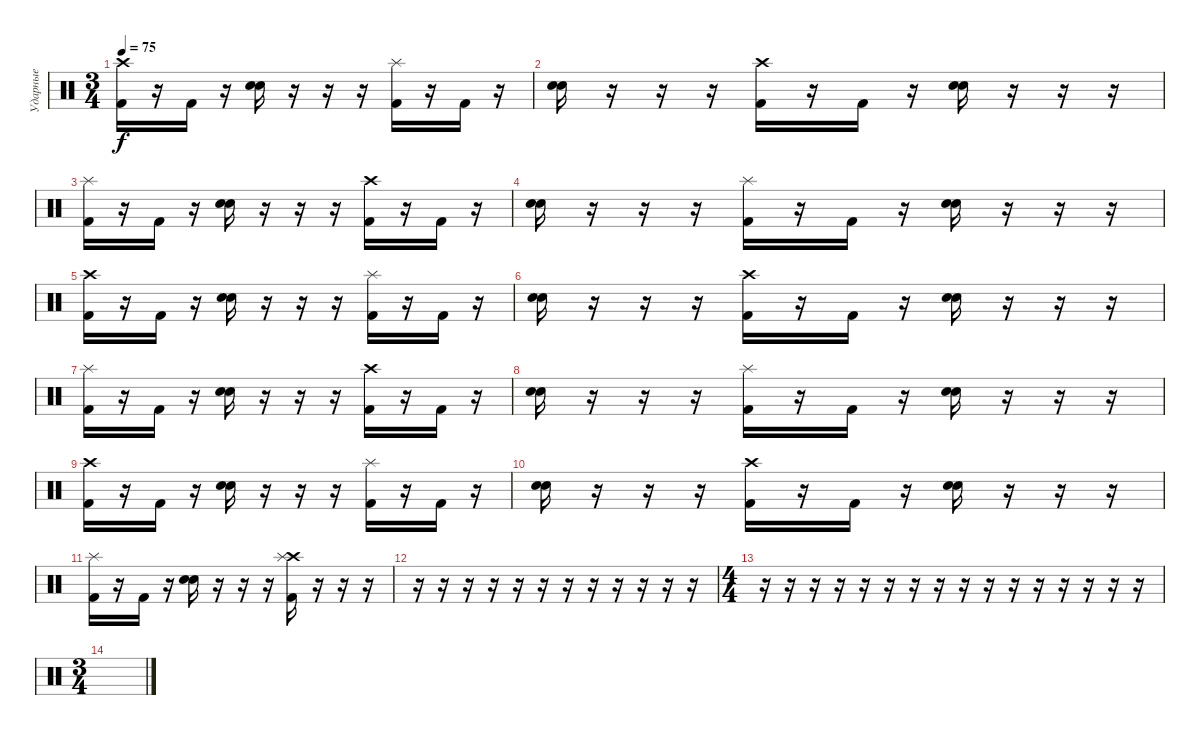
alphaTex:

\track ("Ударные" "Ударные") {instrument percussion}
\staff {score}
\articulation defaults
\ts (3 4)
\tempo 75
\clef neutral
\ks c
("Crash high (hit)" "Kick (hit) 2").16{dy f} r.16 "Kick (hit) 2".16 r.16 ("Electric Snare (hit)" "Snare (hit) 2").16 r.16 r.16 r.16 ("Splash (hit)" "Kick (hit) 2").16 r.16 "Kick (hit) 2".16 r.16 |
("Electric Snare (hit)" "Snare (hit) 2").16 r.16 r.16 r.16 ("Crash high (hit)" "Kick (hit) 2").16 r.16 "Kick (hit) 2".16 r.16 ("Electric Snare (hit)" "Snare (hit) 2").16 r.16 r.16 r.16 |
("Splash (hit)" "Kick (hit) 2").16 r.16 "Kick (hit) 2".16 r.16 ("Electric Snare (hit)" "Snare (hit) 2").16 r.16 r.16 r.16 ("Crash high (hit)" "Kick (hit) 2").16 r.16 "Kick (hit) 2".16 r.16 |
("Electric Snare (hit)" "Snare (hit) 2").16 r.16 r.16 r.16 ("Splash (hit)" "Kick (hit) 2").16 r.16 "Kick (hit) 2".16 r.16 ("Electric Snare (hit)" "Snare (hit) 2").16 r.16 r.16 r.16 |
("Crash high (hit)" "Kick (hit) 2").16 r.16 "Kick (hit) 2".16 r.16 ("Electric Snare (hit)" "Snare (hit) 2").16 r.16 r.16 r.16 ("Splash (hit)" "Kick (hit) 2").16 r.16 "Kick (hit) 2".16 r.16 |
("Electric Snare (hit)" "Snare (hit) 2").16 r.16 r.16 r.16 ("Crash high (hit)" "Kick (hit) 2").16 r.16 "Kick (hit) 2".16 r.16 ("Electric Snare (hit)" "Snare (hit) 2").16 r.16 r.16 r.16 |
("Splash (hit)" "Kick (hit) 2").16 r.16 "Kick (hit) 2".16 r.16 ("Electric Snare (hit)" "Snare (hit) 2").16 r.16 r.16 r.16 ("Crash high (hit)" "Kick (hit) 2").16 r.16 "Kick (hit) 2".16 r.16 |
("Electric Snare (hit)" "Snare (hit) 2").16 r.16 r.16 r.16 ("Splash (hit)" "Kick (hit) 2").16 r.16 "Kick (hit) 2".16 r.16 ("Electric Snare (hit)" "Snare (hit) 2").16 r.16 r.16 r.16 |
("Crash high (hit)" "Kick (hit) 2").16 r.16 "Kick (hit) 2".16 r.16 ("Electric Snare (hit)" "Snare (hit) 2").16 r.16 r.16 r.16 ("Splash (hit)" "Kick (hit) 2").16 r.16 "Kick (hit) 2".16 r.16 |
("Electric Snare (hit)" "Snare (hit) 2").16 r.16 r.16 r.16 ("Crash high (hit)" "Kick (hit) 2").16 r.16 "Kick (hit) 2".16 r.16 ("Electric Snare (hit)" "Snare (hit) 2").16 r.16 r.16 r.16 |
("Splash (hit)" "Kick (hit) 2").16 r.16 "Kick (hit) 2".16 r.16 ("Electric Snare (hit)" "Snare (hit) 2").16 r.16 r.16 r.16 ("Crash high (hit)" "Splash (hit)" "Kick (hit) 2").16 r.16 r.16 r.16 |
r.16 r.16 r.16 r.16 r.16 r.16 r.16 r.16 r.16 r.16 r.16 r.16 |
\ts (4 4)
r.16 r.16 r.16 r.16 r.16 r.16 r.16 r.16 r.16 r.16 r.16 r.16 r.16 r.16 r.16 r.16 |
\ts (3 4)
